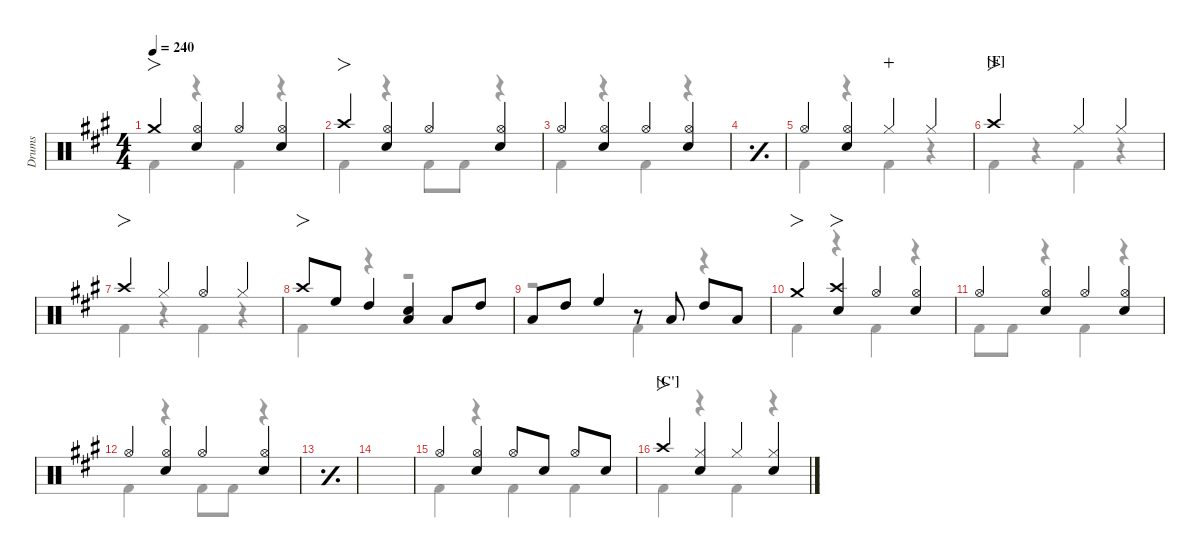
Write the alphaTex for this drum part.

\defaultSystemsLayout 4
\hideDynamics
\bracketExtendMode nobrackets
\otherSystemsTrackNameOrientation horizontal
\track ("Drums" "Drums") {defaultSystemsLayout 4 instrument percussion}
\staff {score}
\articulation defaults
\voice
\ts (4 4)
\tempo 240
\clef neutral
\scale
0.977842
\ks a "Crash medium (hit)"{acc forcenatural}.4{fo dy f beam Up}
("Hi-Hat (open)"{acc forcenatural} "Snare (hit) 2"{acc forcenatural}).4{beam Up} "Hi-Hat (open)"{acc forcenatural}.4{beam Up} ("Hi-Hat (open)"{acc forcenatural} "Snare (hit) 2"{acc forcenatural}).4{beam Up} |
\scale
1.06205 "Crash high (hit)"{acc forcenatural}.4{fo beam Up} ("Hi-Hat (open)"{acc forcenatural} "Snare (hit) 2"{acc forcenatural}).4{beam Up} "Hi-Hat (open)"{acc forcenatural}.4{beam Up} ("Hi-Hat (open)"{acc forcenatural} "Snare (hit) 2"{acc forcenatural}).4{beam Up} |
\scale
0.973421 "Hi-Hat (open)"{acc forcenatural}.4{beam Up} ("Hi-Hat (open)"{acc forcenatural} "Snare (hit) 2"{acc forcenatural}).4{beam Up} "Hi-Hat (open)"{acc forcenatural}.4{beam Up} ("Hi-Hat (open)"{acc forcenatural} "Snare (hit) 2"{acc forcenatural}).4{beam Up} |
\simile simple
\scale
0.973421 |
\simile none
\scale
0.991105 "Hi-Hat (open)"{acc forcenatural}.4{beam Up} ("Hi-Hat (open)"{acc forcenatural} "Snare (hit) 2"{acc forcenatural}).4{beam Up} "Hi-Hat (closed)"{acc forcenatural}.4{dy p wahc beam Up} "Hi-Hat (closed)"{acc forcenatural}.4{dy f beam Up} |
\section ("F" "")
\scale
1.06647 "Crash high (hit)"{acc forcenatural}.2{fo beam Up} "Hi-Hat (closed)"{acc forcenatural}.4{beam Up} "Hi-Hat (closed)"{acc forcenatural}.4{beam Up} |
\scale
0.977842 "Crash high (hit)"{acc forcenatural}.4{fo beam Up} "Hi-Hat (closed)"{acc forcenatural}.4{beam Up} "Hi-Hat (open)"{acc forcenatural}.4{beam Up} "Hi-Hat (closed)"{acc forcenatural}.4{beam Up} |
\scale
0.977842 "Crash high (hit)"{acc forcenatural}.8{fo beam Up} "High Floor Tom (hit)"{acc forcenatural}.8{dy fff beam Up} "High Tom (hit)"{acc forcenatural}.4{beam Up} ("Snare (hit) 2"{acc forcenatural} "Low Tom (hit)"{acc forcenatural}).4{dy f beam Up} "Low Tom (hit)"{acc forcenatural}.8{dy fff beam Up} "High Tom (hit)"{acc forcenatural}.8{beam Up} |
\scale
0.977842 "Low Tom (hit)"{acc forcenatural}.8{beam Up} "High Tom (hit)"{acc forcenatural}.8{beam Up} "High Floor Tom (hit)"{acc forcenatural}.4{beam Up} r.8{beam Up} "Low Tom (hit)"{acc forcenatural}.8{beam Up} "High Tom (hit)"{acc forcenatural}.8{beam Up} "Low Tom (hit)"{acc forcenatural}.8{beam Up} |
\scale
1.06647 "Crash medium (hit)"{acc forcenatural}.4{fo dy f beam Up} ("Crash high (hit)"{acc forcenatural} "Snare (hit) 2"{acc forcenatural}).4{fo beam Up} "Hi-Hat (open)"{acc forcenatural}.4{beam Up} ("Hi-Hat (open)"{acc forcenatural} "Snare (hit) 2"{acc forcenatural}).4{beam Up} |
\scale
0.977842 "Hi-Hat (open)"{acc forcenatural}.4{beam Up} ("Hi-Hat (open)"{acc forcenatural} "Snare (hit) 2"{acc forcenatural}).4{beam Up} "Hi-Hat (open)"{acc forcenatural}.4{beam Up} ("Hi-Hat (open)"{acc forcenatural} "Snare (hit) 2"{acc forcenatural}).4{beam Up} |
\scale
0.977842 "Hi-Hat (open)"{acc forcenatural}.4{beam Up} ("Hi-Hat (open)"{acc forcenatural} "Snare (hit) 2"{acc forcenatural}).4{beam Up} "Hi-Hat (open)"{acc forcenatural}.4{beam Up} ("Hi-Hat (open)"{acc forcenatural} "Snare (hit) 2"{acc forcenatural}).4{beam Up} |
\simile simple
\scale
0.977842 |
\scale
1.02033 |
\simile none
\scale
0.97967 "Hi-Hat (open)"{acc forcenatural}.4{beam Up} ("Hi-Hat (open)"{acc forcenatural} "Snare (hit) 2"{acc forcenatural}).4{beam Up} "Hi-Hat (open)"{acc forcenatural}.8{beam Up} "Snare (hit) 2"{acc forcenatural}.8{beam Up} "Hi-Hat (open)"{acc forcenatural}.8{beam Up} "Snare (hit) 2"{acc forcenatural}.8{beam Up} |
\section ("C'" "")
\scale
1.06647 "Crash high (hit)"{acc forcenatural}.4{fo beam Up} ("Hi-Hat (closed)"{acc forcenatural} "Snare (hit) 2"{acc forcenatural}).4{beam Up} "Hi-Hat (closed)"{acc forcenatural}.4{beam Up} ("Hi-Hat (closed)"{acc forcenatural} "Snare (hit) 2"{acc forcenatural}).4{beam Up}
\voice
\clef neutral
\ottava regular
\simile none
\scale
0.977842
\ks a "Kick (hit) 2"{acc forcenatural}.4{dy f beam Down}
r.4{beam Down} "Kick (hit) 2"{acc forcenatural}.4{beam Down} r.4{beam Down} |
\scale
1.06205 "Kick (hit) 2"{acc forcenatural}.4{beam Down} r.4{beam Down} "Kick (hit) 2"{acc forcenatural}.8{beam Down} "Kick (hit) 2"{acc forcenatural}.8{beam Down} r.4{beam Down} |
\scale
0.973421 "Kick (hit) 2"{acc forcenatural}.4{beam Down} r.4{beam Down} "Kick (hit) 2"{acc forcenatural}.4{beam Down} r.4{beam Down} |
\simile simple
\scale
0.973421 |
\simile none
\scale
0.991105 "Kick (hit) 2"{acc forcenatural}.4{beam Down} r.4{beam Down} "Kick (hit) 2"{acc forcenatural}.4{beam Down} r.4{beam Down} |
\scale
1.06647 "Kick (hit) 2"{acc forcenatural}.4{beam Down} r.4{beam Down} "Kick (hit) 2"{acc forcenatural}.4{beam Down} r.4{beam Down} |
\scale
0.977842 "Kick (hit) 2"{acc forcenatural}.4{beam Down} r.4{beam Down} "Kick (hit) 2"{acc forcenatural}.4{beam Down} r.4{beam Down} |
\scale
0.977842 "Kick (hit) 2"{acc forcenatural}.4{beam Down} r.4{beam Down} r.2{beam Down} |
\scale
0.977842 r.2{beam Down} "Kick (hit) 2"{acc forcenatural}.4{beam Down} r.4{beam Down} |
\scale
1.06647 "Kick (hit) 2"{acc forcenatural}.4{beam Down} r.4{beam Down} "Kick (hit) 2"{acc forcenatural}.4{beam Down} r.4{beam Down} |
\scale
0.977842 "Kick (hit) 2"{acc forcenatural}.8{beam Down} "Kick (hit) 2"{acc forcenatural}.8{beam Down} r.4{beam Down} "Kick (hit) 2"{acc forcenatural}.4{beam Down} r.4{beam Down} |
\scale
0.977842 "Kick (hit) 2"{acc forcenatural}.4{beam Down} r.4{beam Down} "Kick (hit) 2"{acc forcenatural}.8{beam Down} "Kick (hit) 2"{acc forcenatural}.8{beam Down} r.4{beam Down} |
\simile simple
\scale
0.977842 |
\scale
1.02033 |
\simile none
\scale
0.97967 "Kick (hit) 2"{acc forcenatural}.4{beam Down} r.4{beam Down} "Kick (hit) 2"{acc forcenatural}.4{beam Down} "Kick (hit) 2"{acc forcenatural}.4{beam Down} |
\scale
1.06647 "Kick (hit) 2"{acc forcenatural}.4{beam Down} r.4{beam Down} "Kick (hit) 2"{acc forcenatural}.4{beam Down} r.4{beam Down}
